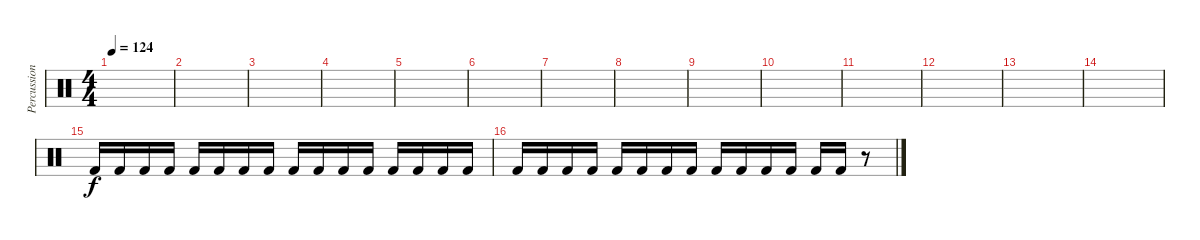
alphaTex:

\track ("Percussion" "Percussion") {instrument percussion}
\staff {score}
\articulation defaults
\ts (4 4)
\tempo 124
\clef neutral
\ks c
|
|
|
|
|
|
|
|
|
|
|
|
|
|
"Kick (hit) 2".16 "Kick (hit) 2".16 "Kick (hit) 2".16 "Kick (hit) 2".16 "Kick (hit) 2".16 "Kick (hit) 2".16 "Kick (hit) 2".16 "Kick (hit) 2".16 "Kick (hit) 2".16 "Kick (hit) 2".16 "Kick (hit) 2".16 "Kick (hit) 2".16 "Kick (hit) 2".16 "Kick (hit) 2".16 "Kick (hit) 2".16 "Kick (hit) 2".16 |
"Kick (hit) 2".16 "Kick (hit) 2".16 "Kick (hit) 2".16 "Kick (hit) 2".16 "Kick (hit) 2".16 "Kick (hit) 2".16 "Kick (hit) 2".16 "Kick (hit) 2".16 "Kick (hit) 2".16 "Kick (hit) 2".16 "Kick (hit) 2".16 "Kick (hit) 2".16 "Kick (hit) 2".16 "Kick (hit) 2".16 r.8
